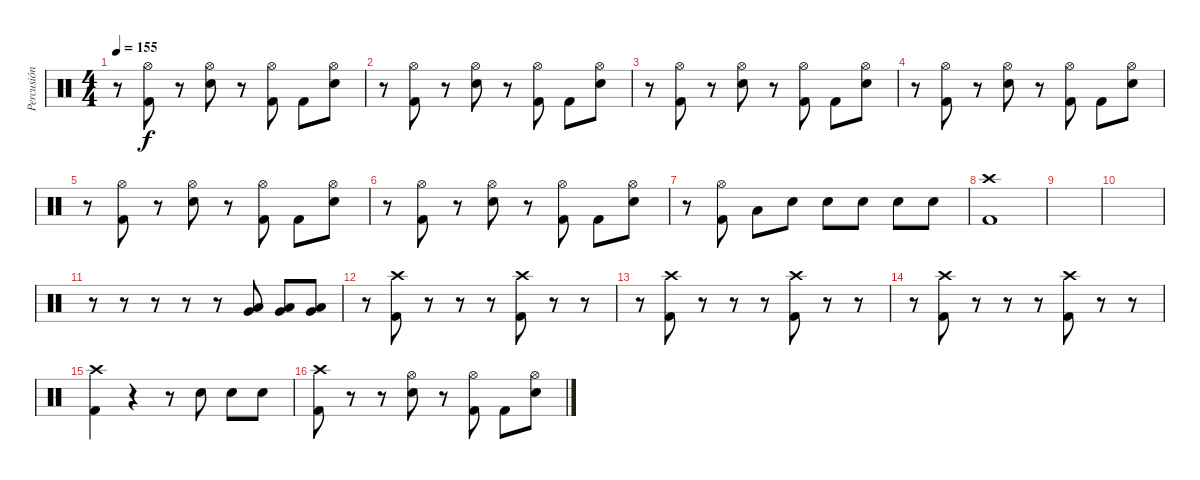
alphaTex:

\track ("Percusión" "Percusión") {instrument percussion}
\staff {score}
\articulation defaults
\ts (4 4)
\tempo 155
\clef neutral
\ks c
r.8{dy f} ("Hi-Hat (open)" "Kick (hit) 2").8 r.8 ("Hi-Hat (open)" "Electric Snare (hit)").8 r.8 ("Hi-Hat (open)" "Kick (hit) 2").8 "Kick (hit) 2".8 ("Hi-Hat (open)" "Electric Snare (hit)").8 |
r.8 ("Hi-Hat (open)" "Kick (hit) 2").8 r.8 ("Hi-Hat (open)" "Electric Snare (hit)").8 r.8 ("Hi-Hat (open)" "Kick (hit) 2").8 "Kick (hit) 2".8 ("Hi-Hat (open)" "Electric Snare (hit)").8 |
r.8 ("Hi-Hat (open)" "Kick (hit) 2").8 r.8 ("Hi-Hat (open)" "Electric Snare (hit)").8 r.8 ("Hi-Hat (open)" "Kick (hit) 2").8 "Kick (hit) 2".8 ("Hi-Hat (open)" "Electric Snare (hit)").8 |
r.8 ("Hi-Hat (open)" "Kick (hit) 2").8 r.8 ("Hi-Hat (open)" "Electric Snare (hit)").8 r.8 ("Hi-Hat (open)" "Kick (hit) 2").8 "Kick (hit) 2".8 ("Hi-Hat (open)" "Electric Snare (hit)").8 |
r.8 ("Hi-Hat (open)" "Kick (hit) 2").8 r.8 ("Hi-Hat (open)" "Electric Snare (hit)").8 r.8 ("Hi-Hat (open)" "Kick (hit) 2").8 "Kick (hit) 2".8 ("Hi-Hat (open)" "Electric Snare (hit)").8 |
r.8 ("Hi-Hat (open)" "Kick (hit) 2").8 r.8 ("Hi-Hat (open)" "Electric Snare (hit)").8 r.8 ("Hi-Hat (open)" "Kick (hit) 2").8 "Kick (hit) 2".8 ("Hi-Hat (open)" "Electric Snare (hit)").8 |
r.8 ("Hi-Hat (open)" "Kick (hit) 2").8 "Low Tom (hit)".8 "Electric Snare (hit)".8 "Electric Snare (hit)".8 "Electric Snare (hit)".8 "Electric Snare (hit)".8 "Electric Snare (hit)".8 |
("Crash high (hit)" "Kick (hit) 2").1 |
|
|
r.8 r.8 r.8 r.8 r.8 ("Very Low Tom (hit)" "Low Tom (hit)").8 ("Very Low Tom (hit)" "Low Tom (hit)").8 ("Very Low Tom (hit)" "Low Tom (hit)").8 |
r.8 ("Crash high (hit)" "Kick (hit) 2").8 r.8 r.8 r.8 ("Crash high (hit)" "Kick (hit) 2").8 r.8 r.8 |
r.8 ("Crash high (hit)" "Kick (hit) 2").8 r.8 r.8 r.8 ("Crash high (hit)" "Kick (hit) 2").8 r.8 r.8 |
r.8 ("Crash high (hit)" "Kick (hit) 2").8 r.8 r.8 r.8 ("Crash high (hit)" "Kick (hit) 2").8 r.8 r.8 |
("Crash high (hit)" "Kick (hit) 2").4 r.4 r.8 "Electric Snare (hit)".8 "Electric Snare (hit)".8 "Electric Snare (hit)".8 |
("Crash high (hit)" "Kick (hit) 2").8 r.8 r.8 ("Hi-Hat (open)" "Electric Snare (hit)").8 r.8 ("Hi-Hat (open)" "Kick (hit) 2").8 "Kick (hit) 2".8 ("Hi-Hat (open)" "Electric Snare (hit)").8
